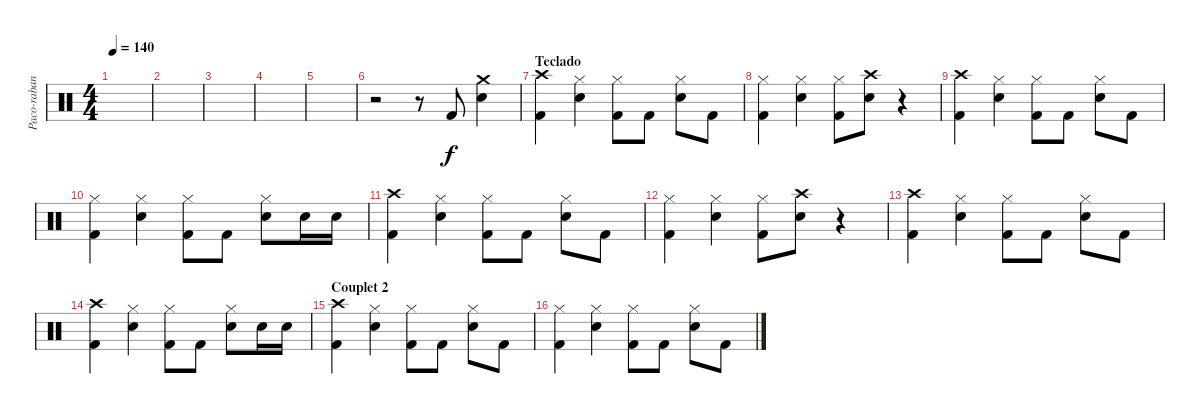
\track ("Paco-rabane" "Paco-raban") {instrument percussion}
\staff {score}
\articulation defaults
\ts (4 4)
\tempo 140
\clef neutral
\ks c
|
|
|
|
|
r.2 r.8 "Kick (hit) 2".8 ("Crash medium (hit)" "Snare (hit) 2").4 |
\section ("" "Teclado")
("Crash high (hit)" "Kick (hit) 2").4 ("Hi-Hat (closed)" "Snare (hit) 2").4 ("Hi-Hat (closed)" "Kick (hit) 2").8 "Kick (hit) 2".8 ("Hi-Hat (closed)" "Snare (hit) 2").8 "Kick (hit) 2".8 |
("Hi-Hat (closed)" "Kick (hit) 2").4 ("Hi-Hat (closed)" "Snare (hit) 2").4 ("Hi-Hat (closed)" "Kick (hit) 2").8 ("Crash high (hit)" "Snare (hit) 2").8 r.4 |
("Crash high (hit)" "Kick (hit) 2").4 ("Hi-Hat (closed)" "Snare (hit) 2").4 ("Hi-Hat (closed)" "Kick (hit) 2").8 "Kick (hit) 2".8 ("Hi-Hat (closed)" "Snare (hit) 2").8 "Kick (hit) 2".8 |
("Hi-Hat (closed)" "Kick (hit) 2").4 ("Hi-Hat (closed)" "Snare (hit) 2").4 ("Hi-Hat (closed)" "Kick (hit) 2").8 "Kick (hit) 2".8 ("Hi-Hat (closed)" "Snare (hit) 2").8 "Snare (hit) 2".16 "Snare (hit) 2".16 |
("Crash high (hit)" "Kick (hit) 2").4 ("Hi-Hat (closed)" "Snare (hit) 2").4 ("Hi-Hat (closed)" "Kick (hit) 2").8 "Kick (hit) 2".8 ("Hi-Hat (closed)" "Snare (hit) 2").8 "Kick (hit) 2".8 |
("Hi-Hat (closed)" "Kick (hit) 2").4 ("Hi-Hat (closed)" "Snare (hit) 2").4 ("Hi-Hat (closed)" "Kick (hit) 2").8 ("Crash high (hit)" "Snare (hit) 2").8 r.4 |
("Crash high (hit)" "Kick (hit) 2").4 ("Hi-Hat (closed)" "Snare (hit) 2").4 ("Hi-Hat (closed)" "Kick (hit) 2").8 "Kick (hit) 2".8 ("Hi-Hat (closed)" "Snare (hit) 2").8 "Kick (hit) 2".8 |
("Crash high (hit)" "Kick (hit) 2").4 ("Hi-Hat (closed)" "Snare (hit) 2").4 ("Hi-Hat (closed)" "Kick (hit) 2").8 "Kick (hit) 2".8 ("Hi-Hat (closed)" "Snare (hit) 2").8 "Snare (hit) 2".16 "Snare (hit) 2".16 |
\section ("" "Couplet 2")
("Crash high (hit)" "Kick (hit) 2").4 ("Hi-Hat (closed)" "Snare (hit) 2").4 ("Hi-Hat (closed)" "Kick (hit) 2").8 "Kick (hit) 2".8 ("Hi-Hat (closed)" "Snare (hit) 2").8 "Kick (hit) 2".8 |
("Hi-Hat (closed)" "Kick (hit) 2").4 ("Hi-Hat (closed)" "Snare (hit) 2").4 ("Hi-Hat (closed)" "Kick (hit) 2").8 "Kick (hit) 2".8 ("Hi-Hat (closed)" "Snare (hit) 2").8 "Kick (hit) 2".8
